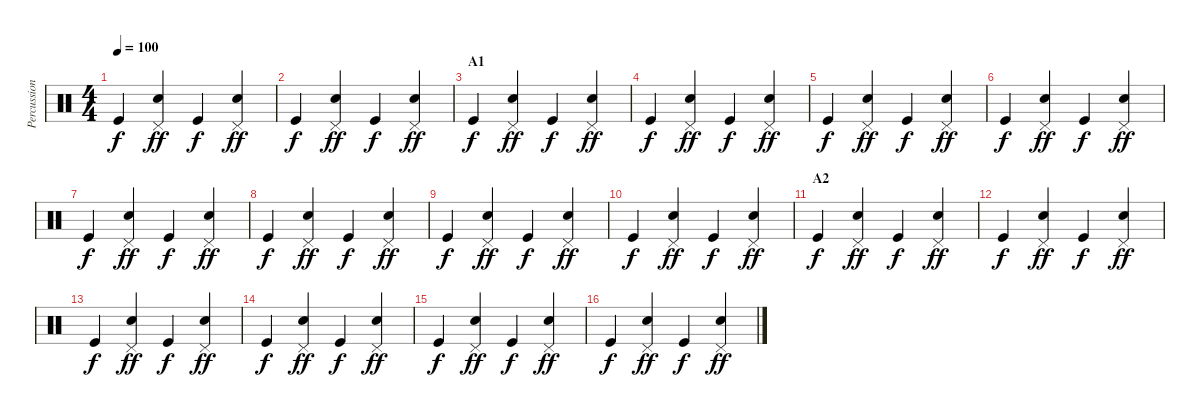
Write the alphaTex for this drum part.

\track ("Percussion" "Percussion") {instrument percussion}
\staff {score}
\articulation defaults
\ts (4 4)
\tempo 100
\clef neutral
\ks c "Kick (hit)".4{dy f}
("Snare (hit) 2" "Pedal Hi-Hat (hit)").4{dy ff} "Kick (hit)".4{dy f} ("Snare (hit) 2" "Pedal Hi-Hat (hit)").4{dy ff} |
"Kick (hit)".4{dy f} ("Snare (hit) 2" "Pedal Hi-Hat (hit)").4{dy ff} "Kick (hit)".4{dy f} ("Snare (hit) 2" "Pedal Hi-Hat (hit)").4{dy ff} |
\section ("" "A1")
"Kick (hit)".4{dy f} ("Snare (hit) 2" "Pedal Hi-Hat (hit)").4{dy ff} "Kick (hit)".4{dy f} ("Snare (hit) 2" "Pedal Hi-Hat (hit)").4{dy ff} |
"Kick (hit)".4{dy f} ("Snare (hit) 2" "Pedal Hi-Hat (hit)").4{dy ff} "Kick (hit)".4{dy f} ("Snare (hit) 2" "Pedal Hi-Hat (hit)").4{dy ff} |
"Kick (hit)".4{dy f} ("Snare (hit) 2" "Pedal Hi-Hat (hit)").4{dy ff} "Kick (hit)".4{dy f} ("Snare (hit) 2" "Pedal Hi-Hat (hit)").4{dy ff} |
"Kick (hit)".4{dy f} ("Snare (hit) 2" "Pedal Hi-Hat (hit)").4{dy ff} "Kick (hit)".4{dy f} ("Snare (hit) 2" "Pedal Hi-Hat (hit)").4{dy ff} |
"Kick (hit)".4{dy f} ("Snare (hit) 2" "Pedal Hi-Hat (hit)").4{dy ff} "Kick (hit)".4{dy f} ("Snare (hit) 2" "Pedal Hi-Hat (hit)").4{dy ff} |
"Kick (hit)".4{dy f} ("Snare (hit) 2" "Pedal Hi-Hat (hit)").4{dy ff} "Kick (hit)".4{dy f} ("Snare (hit) 2" "Pedal Hi-Hat (hit)").4{dy ff} |
"Kick (hit)".4{dy f} ("Snare (hit) 2" "Pedal Hi-Hat (hit)").4{dy ff} "Kick (hit)".4{dy f} ("Snare (hit) 2" "Pedal Hi-Hat (hit)").4{dy ff} |
"Kick (hit)".4{dy f} ("Snare (hit) 2" "Pedal Hi-Hat (hit)").4{dy ff} "Kick (hit)".4{dy f} ("Snare (hit) 2" "Pedal Hi-Hat (hit)").4{dy ff} |
\section ("" "A2")
"Kick (hit)".4{dy f} ("Snare (hit) 2" "Pedal Hi-Hat (hit)").4{dy ff} "Kick (hit)".4{dy f} ("Snare (hit) 2" "Pedal Hi-Hat (hit)").4{dy ff} |
"Kick (hit)".4{dy f} ("Snare (hit) 2" "Pedal Hi-Hat (hit)").4{dy ff} "Kick (hit)".4{dy f} ("Snare (hit) 2" "Pedal Hi-Hat (hit)").4{dy ff} |
"Kick (hit)".4{dy f} ("Snare (hit) 2" "Pedal Hi-Hat (hit)").4{dy ff} "Kick (hit)".4{dy f} ("Snare (hit) 2" "Pedal Hi-Hat (hit)").4{dy ff} |
"Kick (hit)".4{dy f} ("Snare (hit) 2" "Pedal Hi-Hat (hit)").4{dy ff} "Kick (hit)".4{dy f} ("Snare (hit) 2" "Pedal Hi-Hat (hit)").4{dy ff} |
"Kick (hit)".4{dy f} ("Snare (hit) 2" "Pedal Hi-Hat (hit)").4{dy ff} "Kick (hit)".4{dy f} ("Snare (hit) 2" "Pedal Hi-Hat (hit)").4{dy ff} |
"Kick (hit)".4{dy f} ("Snare (hit) 2" "Pedal Hi-Hat (hit)").4{dy ff} "Kick (hit)".4{dy f} ("Snare (hit) 2" "Pedal Hi-Hat (hit)").4{dy ff}
